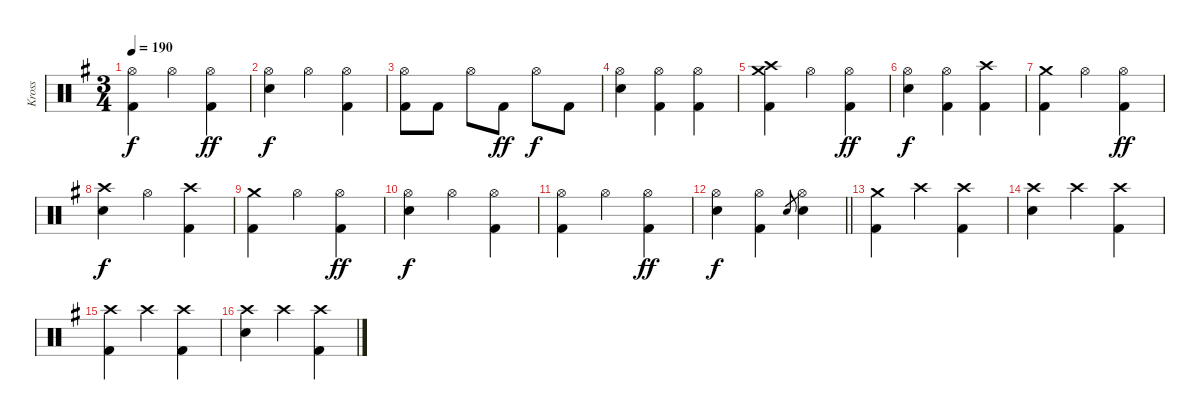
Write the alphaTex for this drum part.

\track ("Kross" "Kross") {instrument percussion}
\staff {score}
\articulation defaults
\ts (3 4)
\tempo 190
\clef neutral
\ks g
("Hi-Hat (open)" "Kick (hit) 2").4{dy f} "Hi-Hat (open)".4 ("Hi-Hat (open)" "Kick (hit) 2").4{dy ff} |
("Hi-Hat (open)" "Snare (hit) 2").4{dy f} "Hi-Hat (open)".4 ("Hi-Hat (open)" "Kick (hit) 2").4 |
("Hi-Hat (open)" "Kick (hit) 2").8 "Kick (hit) 2".8 "Hi-Hat (open)".8 "Kick (hit) 2".8{dy ff} "Hi-Hat (open)".8{dy f} "Kick (hit) 2".8 |
("Hi-Hat (open)" "Snare (hit) 2").4 ("Hi-Hat (open)" "Kick (hit) 2").4 ("Hi-Hat (open)" "Kick (hit) 2").4 |
("Crash high (hit)" "Crash medium (hit)" "Kick (hit) 2").4 "Hi-Hat (open)".4 ("Hi-Hat (open)" "Kick (hit) 2").4{dy ff} |
("Hi-Hat (open)" "Snare (hit) 2").4{dy f} ("Hi-Hat (open)" "Kick (hit) 2").4 ("Crash high (hit)" "Kick (hit) 2").4 |
("Crash medium (hit)" "Kick (hit) 2").4 "Hi-Hat (open)".4 ("Hi-Hat (open)" "Kick (hit) 2").4{dy ff} |
("Crash high (hit)" "Snare (hit) 2").4{dy f} "Hi-Hat (open)".4 ("Crash high (hit)" "Kick (hit) 2").4 |
("Crash medium (hit)" "Kick (hit) 2").4 "Hi-Hat (open)".4 ("Hi-Hat (open)" "Kick (hit) 2").4{dy ff} |
("Hi-Hat (open)" "Snare (hit) 2").4{dy f} "Hi-Hat (open)".4 ("Hi-Hat (open)" "Kick (hit) 2").4 |
("Hi-Hat (open)" "Kick (hit) 2").4 "Hi-Hat (open)".4 ("Hi-Hat (open)" "Kick (hit) 2").4{dy ff} |
\barLineRight lightlight
("Hi-Hat (open)" "Snare (hit) 2").4{dy f} ("Hi-Hat (open)" "Kick (hit) 2").4 "Electric Snare (hit)".8{gr} ("Hi-Hat (open)" "Electric Snare (hit)").4 |
("Crash medium (hit)" "Kick (hit) 2").4 "Crash high (hit)".4 ("Crash high (hit)" "Kick (hit) 2").4 |
("Crash high (hit)" "Snare (hit) 2").4 "Crash high (hit)".4 ("Crash high (hit)" "Kick (hit) 2").4 |
("Crash high (hit)" "Kick (hit) 2").4 "Crash high (hit)".4 ("Crash high (hit)" "Kick (hit) 2").4 |
("Crash high (hit)" "Snare (hit) 2").4 "Crash high (hit)".4 ("Crash high (hit)" "Kick (hit) 2").4
